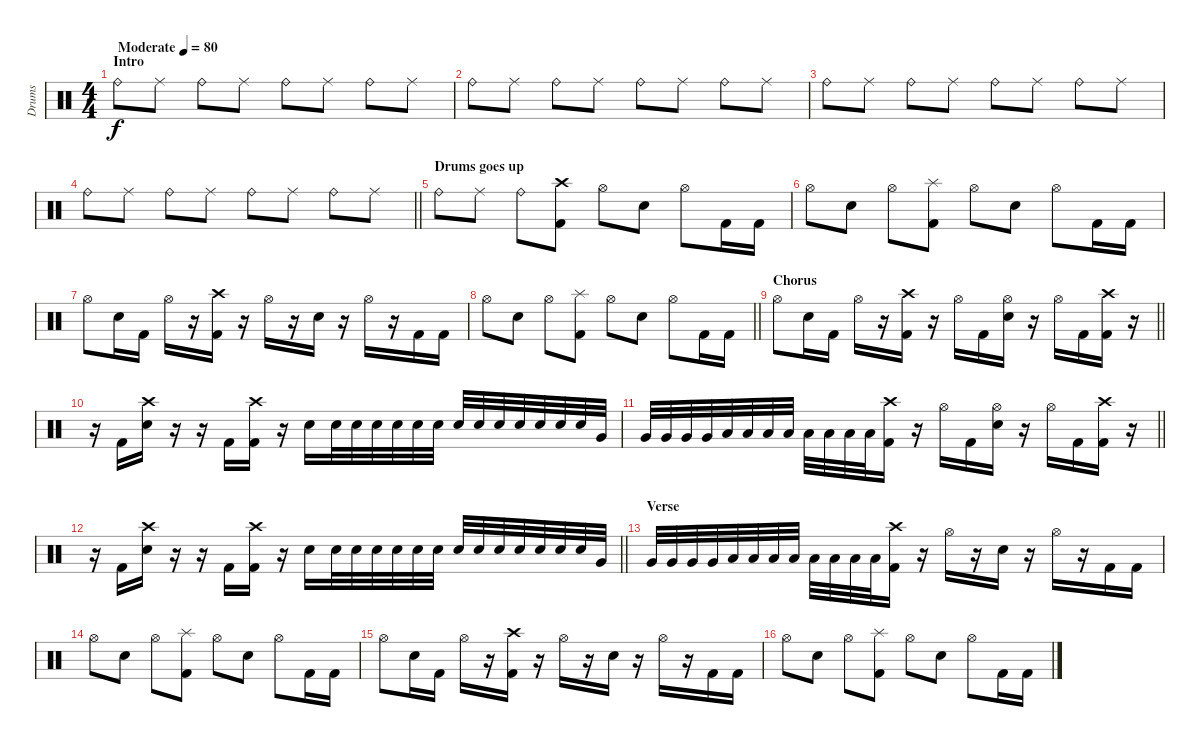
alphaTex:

\track ("Drums" "Drums") {instrument percussion}
\staff {score}
\articulation defaults
\ts (4 4)
\section ("" "Intro")
\tempo (80 "Moderate")
\clef neutral
\ks c "Ride (bell)".8{dy f} "Ride (middle)".8 "Ride (bell)".8 "Ride (middle)".8 "Ride (bell)".8 "Ride (middle)".8 "Ride (bell)".8 "Ride (middle)".8
|
"Ride (bell)".8 "Ride (middle)".8 "Ride (bell)".8 "Ride (middle)".8 "Ride (bell)".8 "Ride (middle)".8 "Ride (bell)".8 "Ride (middle)".8 |
"Ride (bell)".8 "Ride (middle)".8 "Ride (bell)".8 "Ride (middle)".8 "Ride (bell)".8 "Ride (middle)".8 "Ride (bell)".8 "Ride (middle)".8 |
\barLineRight lightlight "Ride (bell)".8 "Ride (middle)".8 "Ride (bell)".8 "Ride (middle)".8 "Ride (bell)".8 "Ride (middle)".8 "Ride (bell)".8 "Ride (middle)".8
|
\section ("" "Drums goes up")
"Ride (bell)".8 "Ride (middle)".8 "Ride (bell)".8 ("Crash high (hit)" "Kick (hit) 2").8 "Hi-Hat (open)".8 "Snare (hit) 2".8 "Hi-Hat (open)".8 "Kick (hit) 2".16 "Kick (hit) 2".16 |
"Hi-Hat (open)".8 "Snare (hit) 2".8 "Hi-Hat (open)".8 ("Splash (hit)" "Kick (hit) 2").8 "Hi-Hat (open)".8 "Snare (hit) 2".8 "Hi-Hat (open)".8 "Kick (hit) 2".16 "Kick (hit) 2".16 |
"Hi-Hat (open)".8 "Snare (hit) 2".16 "Kick (hit) 2".16 "Hi-Hat (open)".16 r.16 ("Kick (hit) 2" "Crash high (hit)").16 r.16 "Hi-Hat (open)".16 r.16 "Snare (hit) 2".16 r.16 "Hi-Hat (open)".16 r.16 "Kick (hit) 2".16 "Kick (hit) 2".16 |
\barLineRight lightlight "Hi-Hat (open)".8 "Snare (hit) 2".8 "Hi-Hat (open)".8
("Splash (hit)" "Kick (hit) 2").8 "Hi-Hat (open)".8 "Snare (hit) 2".8 "Hi-Hat (open)".8 "Kick (hit) 2".16 "Kick (hit) 2".16 |
\section ("" "Chorus")
\barLineRight lightlight "Hi-Hat (open)".8 "Snare (hit) 2".16 "Kick (hit) 2".16 "Hi-Hat (open)".16
r.16 ("Crash high (hit)" "Kick (hit) 2").16 r.16 "Hi-Hat (open)".16 "Kick (hit) 2".16 ("Hi-Hat (open)" "Snare (hit) 2").16 r.16 "Hi-Hat (open)".16 "Kick (hit) 2".16 ("Crash high (hit)" "Kick (hit) 2").16 r.16 |
\section ("" "")
r.16 "Kick (hit) 2".16 ("Crash high (hit)" "Snare (hit) 2").16 r.16 r.16 "Kick (hit) 2".16 ("Crash high (hit)" "Kick (hit) 2").16 r.16 "Snare (hit) 2".16 "Snare (hit) 2".32 "Snare (hit) 2".32 "Snare (hit) 2".32 "Snare (hit) 2".32 "Snare (hit) 2".32 "Snare (hit) 2".32 "Snare (hit) 2".32 "Snare (hit) 2".32 "Snare (hit) 2".32 "Snare (hit) 2".32 "Snare (hit) 2".32 "Snare (hit) 2".32 "Snare (hit) 2".32 "Very Low Tom (hit)".32 |
\barLineRight lightlight "Very Low Tom (hit)".32 "Very Low Tom (hit)".32 "Very Low Tom (hit)".32 "Very Low Tom (hit)".32 "Low Floor Tom (hit)".32 "Low Floor Tom (hit)".32 "Low Floor Tom (hit)".32 "Low Floor Tom (hit)".32 "Low Floor Tom (hit)".32 "Low Floor Tom (hit)".32 "Low Floor Tom (hit)".32 "Low Floor Tom (hit)".32
("Crash high (hit)" "Kick (hit) 2").16 r.16 "Hi-Hat (open)".16 "Kick (hit) 2".16 ("Hi-Hat (open)" "Snare (hit) 2").16 r.16 "Hi-Hat (open)".16 "Kick (hit) 2".16 ("Crash high (hit)" "Kick (hit) 2").16 r.16 |
\barLineRight lightlight
r.16 "Kick (hit) 2".16 ("Crash high (hit)" "Snare (hit) 2").16 r.16 r.16 "Kick (hit) 2".16 ("Crash high (hit)" "Kick (hit) 2").16 r.16 "Snare (hit) 2".16 "Snare (hit) 2".32 "Snare (hit) 2".32 "Snare (hit) 2".32 "Snare (hit) 2".32 "Snare (hit) 2".32 "Snare (hit) 2".32 "Snare (hit) 2".32 "Snare (hit) 2".32 "Snare (hit) 2".32 "Snare (hit) 2".32 "Snare (hit) 2".32 "Snare (hit) 2".32 "Snare (hit) 2".32 "Very Low Tom (hit)".32 |
\section ("" "Verse")
"Very Low Tom (hit)".32 "Very Low Tom (hit)".32 "Very Low Tom (hit)".32 "Very Low Tom (hit)".32 "Low Floor Tom (hit)".32 "Low Floor Tom (hit)".32 "Low Floor Tom (hit)".32 "Low Floor Tom (hit)".32 "Low Floor Tom (hit)".32 "Low Floor Tom (hit)".32 "Low Floor Tom (hit)".32 "Low Floor Tom (hit)".32 ("Kick (hit) 2" "Crash high (hit)").16 r.16 "Hi-Hat (open)".16 r.16 "Snare (hit) 2".16 r.16 "Hi-Hat (open)".16 r.16 "Kick (hit) 2".16 "Kick (hit) 2".16 |
"Hi-Hat (open)".8 "Snare (hit) 2".8 "Hi-Hat (open)".8 ("Splash (hit)" "Kick (hit) 2").8 "Hi-Hat (open)".8 "Snare (hit) 2".8 "Hi-Hat (open)".8 "Kick (hit) 2".16 "Kick (hit) 2".16 |
"Hi-Hat (open)".8 "Snare (hit) 2".16 "Kick (hit) 2".16 "Hi-Hat (open)".16 r.16 ("Kick (hit) 2" "Crash high (hit)").16 r.16 "Hi-Hat (open)".16 r.16 "Snare (hit) 2".16 r.16 "Hi-Hat (open)".16 r.16 "Kick (hit) 2".16 "Kick (hit) 2".16 |
"Hi-Hat (open)".8 "Snare (hit) 2".8 "Hi-Hat (open)".8 ("Splash (hit)" "Kick (hit) 2").8 "Hi-Hat (open)".8 "Snare (hit) 2".8 "Hi-Hat (open)".8 "Kick (hit) 2".16 "Kick (hit) 2".16
